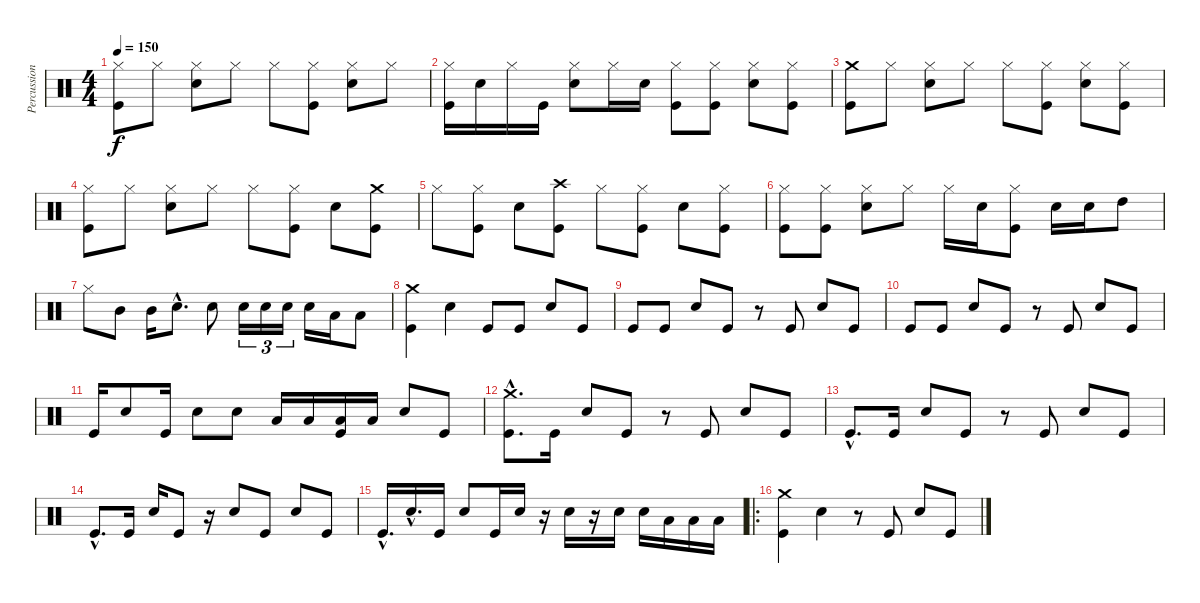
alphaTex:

\track ("Percussion" "Percussion") {instrument percussion}
\staff {score}
\articulation defaults
\ts (4 4)
\tempo 150
\clef neutral
\ks c
("Hi-Hat (closed)" "Kick (hit)").8{dy f} "Hi-Hat (closed)".8 ("Hi-Hat (closed)" "Electric Snare (hit)").8 "Hi-Hat (closed)".8 "Hi-Hat (closed)".8 ("Hi-Hat (closed)" "Kick (hit)").8 ("Hi-Hat (closed)" "Electric Snare (hit)").8 "Hi-Hat (closed)".8 |
("Hi-Hat (closed)" "Kick (hit)").16 "Electric Snare (hit)".16 "Hi-Hat (closed)".16 "Kick (hit)".16 ("Electric Snare (hit)" "Hi-Hat (closed)").8 "Hi-Hat (closed)".16 "Electric Snare (hit)".16 ("Kick (hit)" "Hi-Hat (closed)").8 ("Kick (hit)" "Hi-Hat (closed)").8 ("Electric Snare (hit)" "Hi-Hat (closed)").8 ("Kick (hit)" "Hi-Hat (closed)").8 |
("Crash medium (hit)" "Kick (hit)").8 "Hi-Hat (closed)".8 ("Hi-Hat (closed)" "Electric Snare (hit)").8 "Hi-Hat (closed)".8 "Hi-Hat (closed)".8 ("Hi-Hat (closed)" "Kick (hit)").8 ("Hi-Hat (closed)" "Electric Snare (hit)").8 ("Hi-Hat (closed)" "Kick (hit)").8 |
("Hi-Hat (closed)" "Kick (hit)").8 "Hi-Hat (closed)".8 ("Hi-Hat (closed)" "Electric Snare (hit)").8 "Hi-Hat (closed)".8 "Hi-Hat (closed)".8 ("Hi-Hat (closed)" "Kick (hit)").8 "Electric Snare (hit)".8 ("Kick (hit)" "Crash medium (hit)").8 |
"Hi-Hat (closed)".8 ("Hi-Hat (closed)" "Kick (hit)").8 "Electric Snare (hit)".8 ("Crash high (hit)" "Kick (hit)").8 "Hi-Hat (closed)".8 ("Kick (hit)" "Hi-Hat (closed)").8 "Electric Snare (hit)".8 ("Kick (hit)" "Hi-Hat (closed)").8 |
("Hi-Hat (closed)" "Kick (hit)").8 ("Hi-Hat (closed)" "Kick (hit)").8 ("Hi-Hat (closed)" "Electric Snare (hit)").8 "Hi-Hat (closed)".8 "Hi-Hat (closed)".16 "Electric Snare (hit)".16 ("Hi-Hat (closed)" "Kick (hit)").8 "Electric Snare (hit)".16 "Electric Snare (hit)".16 "High Tom (hit)".8 |
"Hi-Hat (closed)".8 "Mid Tom (hit)".8 "Mid Tom (hit)".16 "Electric Snare (hit)"{hac}.8{d} "Electric Snare (hit)".8 "Electric Snare (hit)".16{tu (3 2)} "Electric Snare (hit)".16{tu (3 2)} "Electric Snare (hit)".16{tu (3 2)} "Electric Snare (hit)".16 "Low Tom (hit)".16 "Low Floor Tom (hit)".8 |
("Crash medium (hit)" "Kick (hit)").4 "Electric Snare (hit)".4 "Kick (hit)".8 "Kick (hit)".8 "Electric Snare (hit)".8 "Kick (hit)".8 |
"Kick (hit)".8 "Kick (hit)".8 "Electric Snare (hit)".8 "Kick (hit)".8 r.8 "Kick (hit)".8 "Electric Snare (hit)".8 "Kick (hit)".8 |
"Kick (hit)".8 "Kick (hit)".8 "Electric Snare (hit)".8 "Kick (hit)".8 r.8 "Kick (hit)".8 "Electric Snare (hit)".8 "Kick (hit)".8 |
"Kick (hit)".16 "Electric Snare (hit)".8 "Kick (hit)".16 "Electric Snare (hit)".8 "Electric Snare (hit)".8 "Low Tom (hit)".16 "Low Tom (hit)".16 ("Kick (hit)" "Low Floor Tom (hit)").16 "Low Floor Tom (hit)".16 "Electric Snare (hit)".8 "Kick (hit)".8 |
("Kick (hit)"{hac} "Crash medium (hit)"{hac}).8{d} "Kick (hit)".16 "Electric Snare (hit)".8 "Kick (hit)".8 r.8 "Kick (hit)".8 "Electric Snare (hit)".8 "Kick (hit)".8 |
"Kick (hit)"{hac}.8{d} "Kick (hit)".16 "Electric Snare (hit)".8 "Kick (hit)".8 r.8 "Kick (hit)".8 "Electric Snare (hit)".8 "Kick (hit)".8 |
"Kick (hit)"{hac}.8{d} "Kick (hit)".16 "Electric Snare (hit)".16 "Kick (hit)".8 r.16 "Electric Snare (hit)".8 "Kick (hit)".8 "Electric Snare (hit)".8 "Kick (hit)".8 |
"Kick (hit)"{hac}.16{d} "Electric Snare (hit)"{hac}.16{d} "Kick (hit)".16 "Electric Snare (hit)".8 "Kick (hit)".16 "Electric Snare (hit)".16 r.16 "Electric Snare (hit)".16 r.16 "Electric Snare (hit)".16 "Electric Snare (hit)".16 "Low Tom (hit)".16 "Low Floor Tom (hit)".16 "Low Floor Tom (hit)".16 |
\ro
("Crash medium (hit)" "Kick (hit)").4 "Electric Snare (hit)".4 r.8 "Kick (hit)".8 "Electric Snare (hit)".8 "Kick (hit)".8
